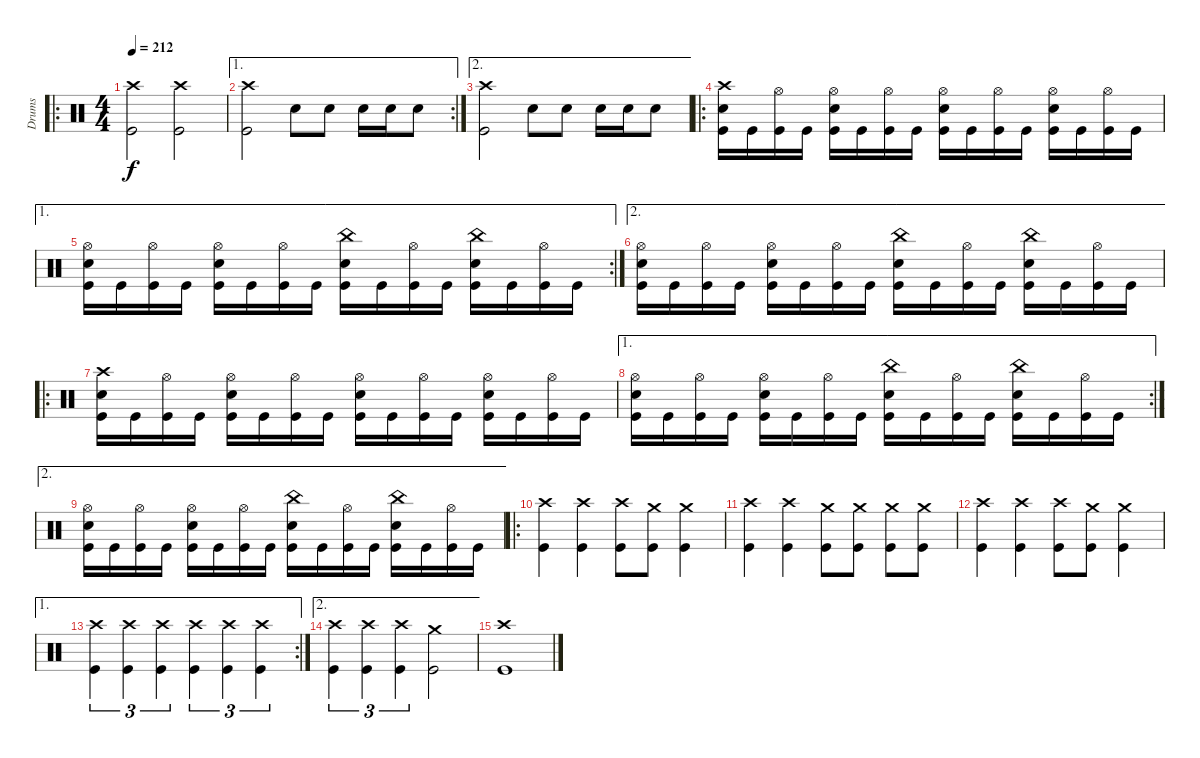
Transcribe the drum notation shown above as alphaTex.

\track ("Drums" "Drums") {instrument percussion}
\staff {score}
\articulation defaults
\ro
\ts (4 4)
\tempo 212
\clef neutral
\ks c
("Crash high (hit)" "Kick (hit)").2{dy f} ("Crash high (hit)" "Kick (hit)").2 |
\ae 1
\rc 2
("Crash high (hit)" "Kick (hit)").2 "Snare (hit) 2".8 "Snare (hit) 2".8 "Snare (hit) 2".16 "Snare (hit) 2".16 "Snare (hit) 2".8 |
\ae 2
("Crash high (hit)" "Kick (hit)").2 "Snare (hit) 2".8 "Snare (hit) 2".8 "Snare (hit) 2".16 "Snare (hit) 2".16 "Snare (hit) 2".8 |
\ro
("Crash high (hit)" "Snare (hit) 2" "Kick (hit)").16 "Kick (hit)".16 ("Hi-Hat (open)" "Kick (hit)").16 "Kick (hit)".16 ("Hi-Hat (open)" "Snare (hit) 2" "Kick (hit)").16 "Kick (hit)".16 ("Hi-Hat (open)" "Kick (hit)").16 "Kick (hit)".16 ("Hi-Hat (open)" "Snare (hit) 2" "Kick (hit)").16 "Kick (hit)".16 ("Hi-Hat (open)" "Kick (hit)").16 "Kick (hit)".16 ("Hi-Hat (open)" "Snare (hit) 2" "Kick (hit)").16 "Kick (hit)".16 ("Hi-Hat (open)" "Kick (hit)").16 "Kick (hit)".16 |
\ae 1
\rc 2
("Hi-Hat (open)" "Snare (hit) 2" "Kick (hit)").16 "Kick (hit)".16 ("Hi-Hat (open)" "Kick (hit)").16 "Kick (hit)".16 ("Hi-Hat (open)" "Snare (hit) 2" "Kick (hit)").16 "Kick (hit)".16 ("Hi-Hat (open)" "Kick (hit)").16 "Kick (hit)".16 ("China (hit)" "Snare (hit) 2" "Kick (hit)").16 "Kick (hit)".16 ("Hi-Hat (open)" "Kick (hit)").16 "Kick (hit)".16 ("China (hit)" "Snare (hit) 2" "Kick (hit)").16 "Kick (hit)".16 ("Hi-Hat (open)" "Kick (hit)").16 "Kick (hit)".16 |
\ae 2
("Hi-Hat (open)" "Snare (hit) 2" "Kick (hit)").16 "Kick (hit)".16 ("Hi-Hat (open)" "Kick (hit)").16 "Kick (hit)".16 ("Hi-Hat (open)" "Snare (hit) 2" "Kick (hit)").16 "Kick (hit)".16 ("Hi-Hat (open)" "Kick (hit)").16 "Kick (hit)".16 ("China (hit)" "Snare (hit) 2" "Kick (hit)").16 "Kick (hit)".16 ("Hi-Hat (open)" "Kick (hit)").16 "Kick (hit)".16 ("China (hit)" "Snare (hit) 2" "Kick (hit)").16 "Kick (hit)".16 ("Hi-Hat (open)" "Kick (hit)").16 "Kick (hit)".16 |
\ro
("Crash high (hit)" "Snare (hit) 2" "Kick (hit)").16 "Kick (hit)".16 ("Hi-Hat (open)" "Kick (hit)").16 "Kick (hit)".16 ("Hi-Hat (open)" "Snare (hit) 2" "Kick (hit)").16 "Kick (hit)".16 ("Hi-Hat (open)" "Kick (hit)").16 "Kick (hit)".16 ("Hi-Hat (open)" "Snare (hit) 2" "Kick (hit)").16 "Kick (hit)".16 ("Hi-Hat (open)" "Kick (hit)").16 "Kick (hit)".16 ("Hi-Hat (open)" "Snare (hit) 2" "Kick (hit)").16 "Kick (hit)".16 ("Hi-Hat (open)" "Kick (hit)").16 "Kick (hit)".16 |
\ae 1
\rc 2
("Hi-Hat (open)" "Snare (hit) 2" "Kick (hit)").16 "Kick (hit)".16 ("Hi-Hat (open)" "Kick (hit)").16 "Kick (hit)".16 ("Hi-Hat (open)" "Snare (hit) 2" "Kick (hit)").16 "Kick (hit)".16 ("Hi-Hat (open)" "Kick (hit)").16 "Kick (hit)".16 ("China (hit)" "Snare (hit) 2" "Kick (hit)").16 "Kick (hit)".16 ("Hi-Hat (open)" "Kick (hit)").16 "Kick (hit)".16 ("China (hit)" "Snare (hit) 2" "Kick (hit)").16 "Kick (hit)".16 ("Hi-Hat (open)" "Kick (hit)").16 "Kick (hit)".16 |
\ae 2
("Hi-Hat (open)" "Snare (hit) 2" "Kick (hit)").16 "Kick (hit)".16 ("Hi-Hat (open)" "Kick (hit)").16 "Kick (hit)".16 ("Hi-Hat (open)" "Snare (hit) 2" "Kick (hit)").16 "Kick (hit)".16 ("Hi-Hat (open)" "Kick (hit)").16 "Kick (hit)".16 ("China (hit)" "Snare (hit) 2" "Kick (hit)").16 "Kick (hit)".16 ("Hi-Hat (open)" "Kick (hit)").16 "Kick (hit)".16 ("China (hit)" "Snare (hit) 2" "Kick (hit)").16 "Kick (hit)".16 ("Hi-Hat (open)" "Kick (hit)").16 "Kick (hit)".16 |
\ro
("Crash high (hit)" "Kick (hit)").4 ("Crash high (hit)" "Kick (hit)").4 ("Crash high (hit)" "Kick (hit)").8 ("Crash medium (hit)" "Kick (hit)").8 ("Crash medium (hit)" "Kick (hit)").4 |
("Crash high (hit)" "Kick (hit)").4 ("Crash high (hit)" "Kick (hit)").4 ("Crash medium (hit)" "Kick (hit)").8 ("Crash medium (hit)" "Kick (hit)").8 ("Crash medium (hit)" "Kick (hit)").8 ("Crash medium (hit)" "Kick (hit)").8 |
("Crash high (hit)" "Kick (hit)").4 ("Crash high (hit)" "Kick (hit)").4 ("Crash high (hit)" "Kick (hit)").8 ("Crash medium (hit)" "Kick (hit)").8 ("Crash medium (hit)" "Kick (hit)").4 |
\ae 1
\rc 2
("Crash high (hit)" "Kick (hit)").4{tu (3 2)} ("Crash high (hit)" "Kick (hit)").4{tu (3 2)} ("Crash high (hit)" "Kick (hit)").4{tu (3 2)} ("Crash high (hit)" "Kick (hit)").4{tu (3 2)} ("Crash high (hit)" "Kick (hit)").4{tu (3 2)} ("Crash high (hit)" "Kick (hit)").4{tu (3 2)} |
\ae 2
("Crash high (hit)" "Kick (hit)").4{tu (3 2)} ("Crash high (hit)" "Kick (hit)").4{tu (3 2)} ("Crash high (hit)" "Kick (hit)").4{tu (3 2)} ("Crash medium (hit)" "Kick (hit)").2 |
("Crash high (hit)" "Kick (hit)").1
